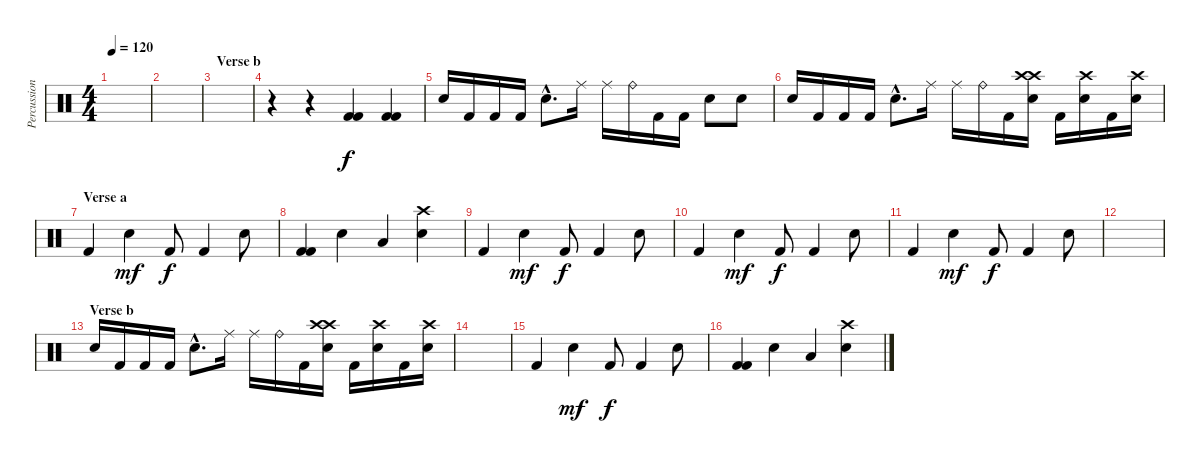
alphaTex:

\track ("Percussions" "Percussion") {instrument percussion}
\staff {score}
\articulation defaults
\ts (4 4)
\section ("" "")
\tempo 120
\clef neutral
\ks c
|
|
\section ("" "Verse b")
|
r.4 r.4 ("Kick (hit) 2" "Kick (hit) 2").4 ("Kick (hit) 2" "Kick (hit) 2").4 |
"Snare (hit) 2".16 "Kick (hit) 2".16 "Kick (hit) 2".16 "Kick (hit) 2".16 "Snare (hit) 2"{hac}.8{d} "Ride (middle)".16 "Ride (middle)".16 "Ride (bell)".16 "Kick (hit) 2".16 "Kick (hit) 2".16 "Snare (hit) 2".8 "Snare (hit) 2".8 |
"Snare (hit) 2".16 "Kick (hit) 2".16 "Kick (hit) 2".16 "Kick (hit) 2".16 "Snare (hit) 2"{hac}.8{d} "Ride (middle)".16 "Ride (middle)".16 "Ride (bell)".16 "Kick (hit) 2".16 ("Crash high (hit)" "Crash high (hit)" "Electric Snare (hit)").16 "Kick (hit) 2".16 ("Electric Snare (hit)" "Crash high (hit)").16 "Kick (hit) 2".16 ("Electric Snare (hit)" "Crash high (hit)").16 |
\section ("" "Verse a")
"Kick (hit) 2".4 "Snare (hit) 2".4{dy mf} "Kick (hit) 2".8{dy f} "Kick (hit) 2".4 "Electric Snare (hit)".8 |
("Kick (hit) 2" "Kick (hit) 2").4{bd 240} "Snare (hit) 2"{x}.4 "Low Floor Tom (hit)".4 ("Crash high (hit)" "Electric Snare (hit)").4 |
"Kick (hit) 2".4 "Snare (hit) 2".4{dy mf} "Kick (hit) 2".8{dy f} "Kick (hit) 2".4 "Electric Snare (hit)".8 |
"Kick (hit) 2".4 "Snare (hit) 2".4{dy mf} "Kick (hit) 2".8{dy f} "Kick (hit) 2".4 "Electric Snare (hit)".8 |
"Kick (hit) 2".4 "Snare (hit) 2".4{dy mf} "Kick (hit) 2".8{dy f} "Kick (hit) 2".4 "Electric Snare (hit)".8 |
|
\section ("" "Verse b")
"Snare (hit) 2".16 "Kick (hit) 2".16 "Kick (hit) 2".16 "Kick (hit) 2".16 "Snare (hit) 2"{hac}.8{d} "Ride (middle)".16 "Ride (middle)".16 "Ride (bell)".16 "Kick (hit) 2".16 ("Crash high (hit)" "Crash high (hit)" "Electric Snare (hit)").16 "Kick (hit) 2".16 ("Electric Snare (hit)" "Crash high (hit)").16 "Kick (hit) 2".16 ("Electric Snare (hit)" "Crash high (hit)").16 |
|
"Kick (hit) 2".4 "Snare (hit) 2".4{dy mf} "Kick (hit) 2".8{dy f} "Kick (hit) 2".4 "Electric Snare (hit)".8 |
("Kick (hit) 2" "Kick (hit) 2").4{bd 240} "Snare (hit) 2"{x}.4 "Low Floor Tom (hit)".4 ("Crash high (hit)" "Electric Snare (hit)").4
